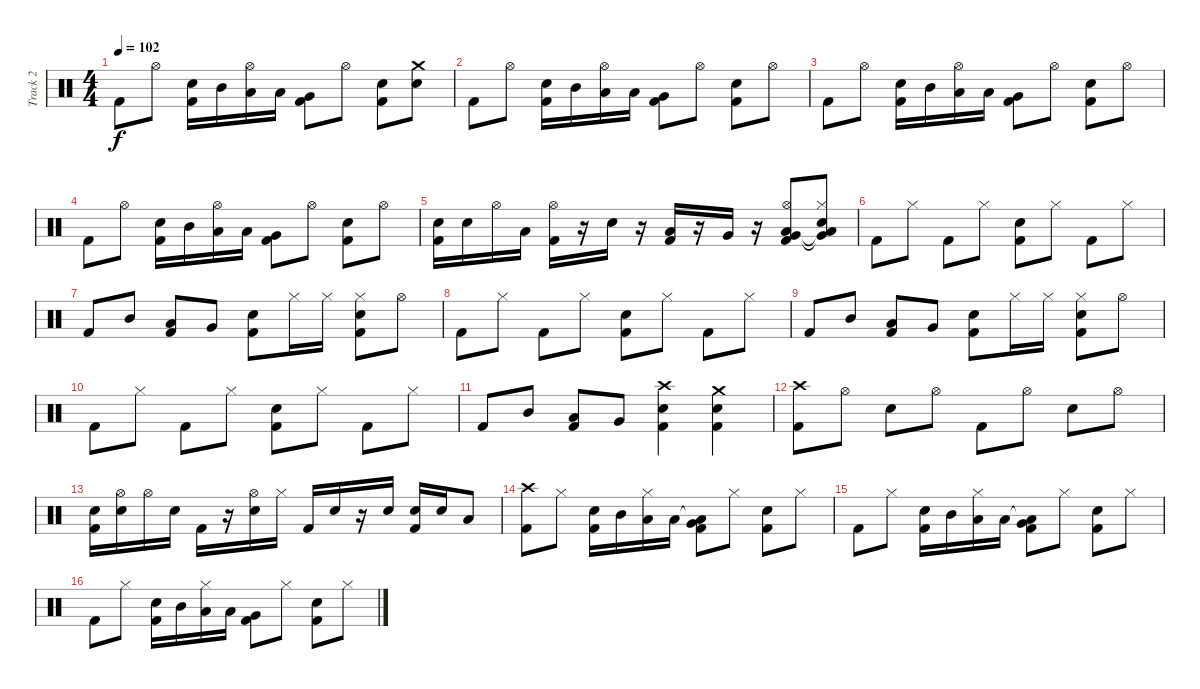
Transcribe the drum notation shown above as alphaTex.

\track ("Track 2" "Track 2") {instrument percussion}
\staff {score}
\articulation defaults
\ts (4 4)
\tempo 102
\clef neutral
\ks c "Kick (hit) 2".8{dy f} "Hi-Hat (open)".8
("Electric Snare (hit)" "Kick (hit) 2").16 "Mid Tom (hit)".16 ("Hi-Hat (open)" "Low Tom (hit)").16 "Low Tom (hit)".16 ("Very Low Tom (hit)" "Kick (hit) 2").8 "Hi-Hat (open)".8 ("Electric Snare (hit)" "Kick (hit) 2").8 ("Crash medium (hit)" "Electric Snare (hit)").8 |
"Kick (hit) 2".8 "Hi-Hat (open)".8 ("Electric Snare (hit)" "Kick (hit) 2").16 "Mid Tom (hit)".16 ("Hi-Hat (open)" "Low Tom (hit)").16 "Low Tom (hit)".16 ("Very Low Tom (hit)" "Kick (hit) 2").8 "Hi-Hat (open)".8 ("Electric Snare (hit)" "Kick (hit) 2").8 "Hi-Hat (open)".8 |
"Kick (hit) 2".8 "Hi-Hat (open)".8 ("Electric Snare (hit)" "Kick (hit) 2").16 "Mid Tom (hit)".16 ("Hi-Hat (open)" "Low Tom (hit)").16 "Low Tom (hit)".16 ("Very Low Tom (hit)" "Kick (hit) 2").8 "Hi-Hat (open)".8 ("Electric Snare (hit)" "Kick (hit) 2").8 "Hi-Hat (open)".8 |
"Kick (hit) 2".8 "Hi-Hat (open)".8 ("Electric Snare (hit)" "Kick (hit) 2").16 "Mid Tom (hit)".16 ("Hi-Hat (open)" "Low Tom (hit)").16 "Low Tom (hit)".16 ("Very Low Tom (hit)" "Kick (hit) 2").8 "Hi-Hat (open)".8 ("Electric Snare (hit)" "Kick (hit) 2").8 "Hi-Hat (open)".8 |
("Electric Snare (hit)" "Kick (hit) 2").16 "Electric Snare (hit)".16 "Hi-Hat (open)".16 "Low Tom (hit)".16 ("Hi-Hat (open)" "Kick (hit) 2").16 r.16 "Electric Snare (hit)".16 r.16 ("Low Tom (hit)" "Kick (hit) 2").16 r.16 "Very Low Tom (hit)".16 r.16 ("Hi-Hat (open)" "Low Tom (hit)" "Very Low Tom (hit)" "Kick (hit) 2").8 ("Hi-Hat (closed)" "Low Tom (hit)"{t} "Very Low Tom (hit)"{t} "Snare (hit)").8 |
"Kick (hit) 2".8 "Hi-Hat (closed)".8 "Kick (hit) 2".8 "Hi-Hat (closed)".8 ("Electric Snare (hit)" "Kick (hit) 2").8 "Hi-Hat (closed)".8 "Kick (hit) 2".8 "Hi-Hat (closed)".8 |
"Kick (hit) 2".8 "Mid Tom (hit)".8 ("Low Tom (hit)" "Kick (hit) 2").8 "Very Low Tom (hit)".8 ("Electric Snare (hit)" "Kick (hit) 2").8 "Hi-Hat (closed)".16 "Hi-Hat (closed)".16 ("Hi-Hat (closed)" "Electric Snare (hit)" "Kick (hit) 2").8 "Hi-Hat (open)".8 |
"Kick (hit) 2".8 "Hi-Hat (closed)".8 "Kick (hit) 2".8 "Hi-Hat (closed)".8 ("Electric Snare (hit)" "Kick (hit) 2").8 "Hi-Hat (closed)".8 "Kick (hit) 2".8 "Hi-Hat (closed)".8 |
"Kick (hit) 2".8 "Mid Tom (hit)".8 ("Low Tom (hit)" "Kick (hit) 2").8 "Very Low Tom (hit)".8 ("Electric Snare (hit)" "Kick (hit) 2").8 "Hi-Hat (closed)".16 "Hi-Hat (closed)".16 ("Hi-Hat (closed)" "Electric Snare (hit)" "Kick (hit) 2").8 "Hi-Hat (open)".8 |
"Kick (hit) 2".8 "Hi-Hat (closed)".8 "Kick (hit) 2".8 "Hi-Hat (closed)".8 ("Electric Snare (hit)" "Kick (hit) 2").8 "Hi-Hat (closed)".8 "Kick (hit) 2".8 "Hi-Hat (closed)".8 |
"Kick (hit) 2".8 "Mid Tom (hit)".8 ("Low Tom (hit)" "Kick (hit) 2").8 "Very Low Tom (hit)".8 ("Crash high (hit)" "Electric Snare (hit)" "Kick (hit) 2").4 ("Crash medium (hit)" "Electric Snare (hit)" "Kick (hit) 2").4 |
("Crash high (hit)" "Kick (hit) 2").8 "Hi-Hat (open)".8 "Electric Snare (hit)".8 "Hi-Hat (open)".8 "Kick (hit) 2".8 "Hi-Hat (open)".8 "Electric Snare (hit)".8 "Hi-Hat (open)".8 |
("Electric Snare (hit)" "Kick (hit) 2").16 ("Hi-Hat (open)" "Electric Snare (hit)").16 "Hi-Hat (open)".16 "Electric Snare (hit)".16 "Kick (hit) 2".16 r.16 ("Hi-Hat (open)" "Electric Snare (hit)").16 "Hi-Hat (closed)".16 "Kick (hit) 2".16 "Electric Snare (hit)".16 r.16 "Electric Snare (hit)".16 ("Electric Snare (hit)" "Kick (hit) 2").16 "Electric Snare (hit)".16 "Low Tom (hit)".8 |
("Crash high (hit)" "Kick (hit) 2").8 "Hi-Hat (closed)".8 ("Electric Snare (hit)" "Kick (hit) 2").16 "Mid Tom (hit)".16 ("Hi-Hat (closed)" "Low Tom (hit)").16 "Low Tom (hit)".16 ("Low Tom (hit)"{t} "Very Low Tom (hit)" "Kick (hit) 2").8 "Hi-Hat (closed)".8 ("Electric Snare (hit)" "Kick (hit) 2").8 "Hi-Hat (closed)".8 |
"Kick (hit) 2".8 "Hi-Hat (closed)".8 ("Electric Snare (hit)" "Kick (hit) 2").16 "Mid Tom (hit)".16 ("Hi-Hat (closed)" "Low Tom (hit)").16 "Low Tom (hit)".16 ("Low Tom (hit)"{t} "Very Low Tom (hit)" "Kick (hit) 2").8 "Hi-Hat (closed)".8 ("Electric Snare (hit)" "Kick (hit) 2").8 "Hi-Hat (closed)".8 |
"Kick (hit) 2".8 "Hi-Hat (closed)".8 ("Electric Snare (hit)" "Kick (hit) 2").16 "Mid Tom (hit)".16 ("Hi-Hat (closed)" "Low Tom (hit)").16 "Low Tom (hit)".16 ("Very Low Tom (hit)" "Kick (hit) 2").8 "Hi-Hat (closed)".8 ("Electric Snare (hit)" "Kick (hit) 2").8 "Hi-Hat (closed)".8
